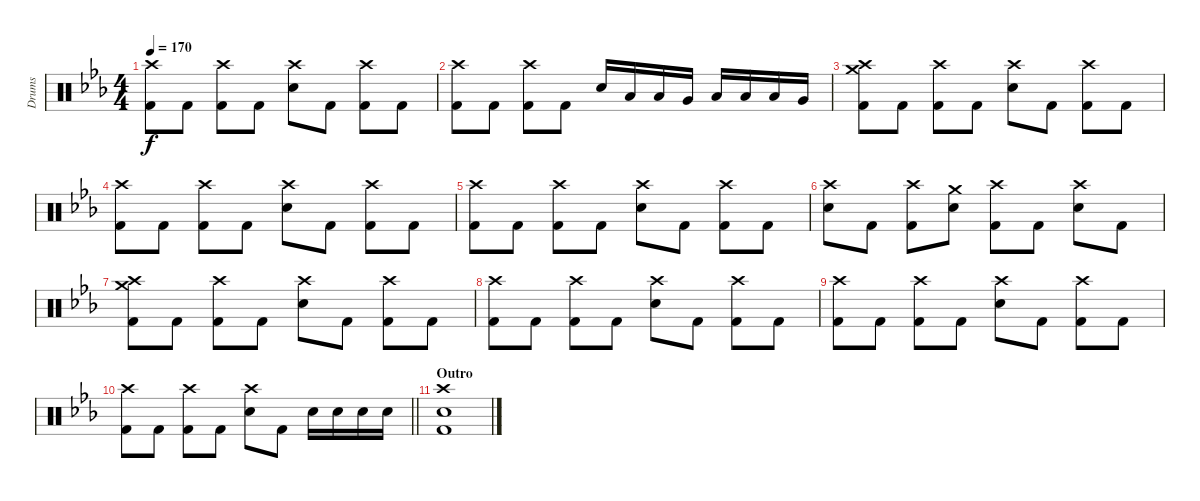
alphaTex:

\track ("Drums" "Drums") {instrument percussion}
\staff {score}
\articulation defaults
\ts (4 4)
\tempo 170
\clef neutral
\ks cminor
("Crash high (hit)" "Kick (hit) 2").8{dy f} "Kick (hit) 2".8 ("Crash high (hit)" "Kick (hit) 2").8 "Kick (hit) 2".8 ("Crash high (hit)" "Electric Snare (hit)").8 "Kick (hit) 2".8 ("Crash high (hit)" "Kick (hit) 2").8 "Kick (hit) 2".8 |
("Crash high (hit)" "Kick (hit) 2").8 "Kick (hit) 2".8 ("Crash high (hit)" "Kick (hit) 2").8 "Kick (hit) 2".8 "Electric Snare (hit)".16 "Low Tom (hit)".16 "Low Tom (hit)".16 "Very Low Tom (hit)".16 "Low Floor Tom (hit)".16 "Low Tom (hit)".16 "Low Tom (hit)".16 "Very Low Tom (hit)".16 |
("Crash high (hit)" "Crash medium (hit)" "Kick (hit) 2").8 "Kick (hit) 2".8 ("Crash high (hit)" "Kick (hit) 2").8 "Kick (hit) 2".8 ("Crash high (hit)" "Electric Snare (hit)").8 "Kick (hit) 2".8 ("Crash high (hit)" "Kick (hit) 2").8 "Kick (hit) 2".8 |
("Crash high (hit)" "Kick (hit) 2").8 "Kick (hit) 2".8 ("Crash high (hit)" "Kick (hit) 2").8 "Kick (hit) 2".8 ("Crash high (hit)" "Electric Snare (hit)").8 "Kick (hit) 2".8 ("Crash high (hit)" "Kick (hit) 2").8 "Kick (hit) 2".8 |
("Crash high (hit)" "Kick (hit) 2").8 "Kick (hit) 2".8 ("Crash high (hit)" "Kick (hit) 2").8 "Kick (hit) 2".8 ("Crash high (hit)" "Electric Snare (hit)").8 "Kick (hit) 2".8 ("Crash high (hit)" "Kick (hit) 2").8 "Kick (hit) 2".8 |
("Crash high (hit)" "Electric Snare (hit)").8 "Kick (hit) 2".8 ("Crash high (hit)" "Kick (hit) 2").8 ("Crash medium (hit)" "Electric Snare (hit)").8 ("Crash high (hit)" "Kick (hit) 2").8 "Kick (hit) 2".8 ("Crash high (hit)" "Electric Snare (hit)").8 "Kick (hit) 2".8 |
("Crash high (hit)" "Crash medium (hit)" "Kick (hit) 2").8 "Kick (hit) 2".8 ("Crash high (hit)" "Kick (hit) 2").8 "Kick (hit) 2".8 ("Crash high (hit)" "Electric Snare (hit)").8 "Kick (hit) 2".8 ("Crash high (hit)" "Kick (hit) 2").8 "Kick (hit) 2".8 |
("Crash high (hit)" "Kick (hit) 2").8 "Kick (hit) 2".8 ("Crash high (hit)" "Kick (hit) 2").8 "Kick (hit) 2".8 ("Crash high (hit)" "Electric Snare (hit)").8 "Kick (hit) 2".8 ("Crash high (hit)" "Kick (hit) 2").8 "Kick (hit) 2".8 |
("Crash high (hit)" "Kick (hit) 2").8 "Kick (hit) 2".8 ("Crash high (hit)" "Kick (hit) 2").8 "Kick (hit) 2".8 ("Crash high (hit)" "Electric Snare (hit)").8 "Kick (hit) 2".8 ("Crash high (hit)" "Kick (hit) 2").8 "Kick (hit) 2".8 |
\barLineRight lightlight
("Crash high (hit)" "Kick (hit) 2").8 "Kick (hit) 2".8 ("Crash high (hit)" "Kick (hit) 2").8 "Kick (hit) 2".8 ("Crash high (hit)" "Electric Snare (hit)").8 "Kick (hit) 2".8 "Electric Snare (hit)".16 "Electric Snare (hit)".16 "Electric Snare (hit)".16 "Electric Snare (hit)".16 |
\section ("" "Outro")
("Crash high (hit)" "Electric Snare (hit)" "Kick (hit) 2").1
